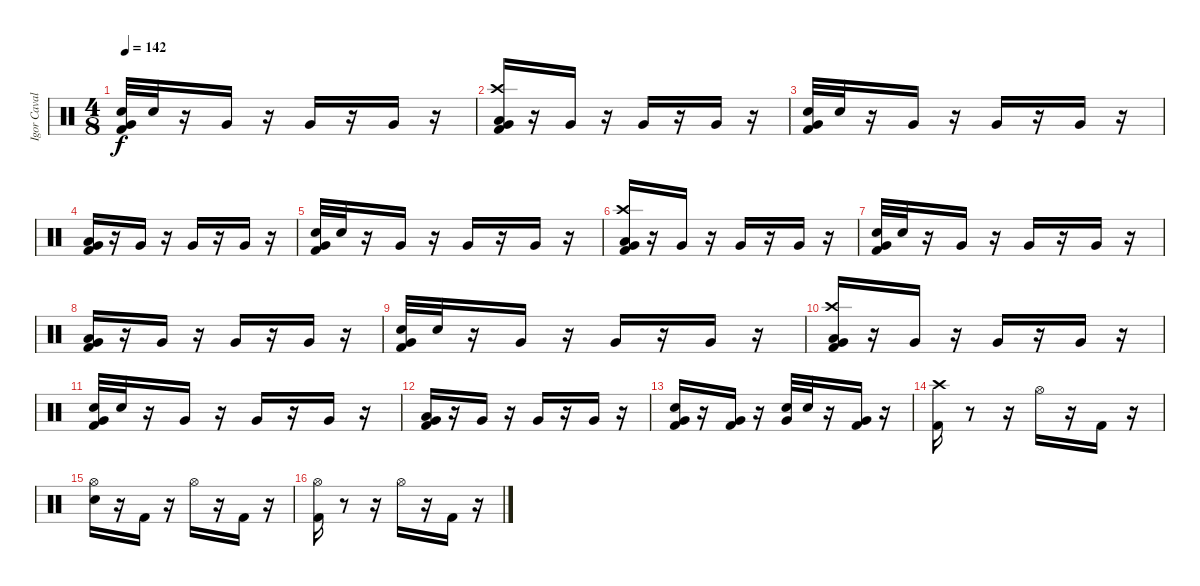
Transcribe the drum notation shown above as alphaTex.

\track ("Igor Cavalera" "Igor Caval") {instrument percussion}
\staff {score}
\articulation defaults
\ts (4 8)
\tempo 142
\clef neutral
\ks c
("Electric Snare (hit)" "Kick (hit) 2" "Very Low Tom (hit)").32{dy f} "Electric Snare (hit)".32 r.16 "Very Low Tom (hit)".16 r.16 "Very Low Tom (hit)".16 r.16 "Very Low Tom (hit)".16 r.16 |
("Very Low Tom (hit)" "Kick (hit) 2" "Crash high (hit)" "Low Floor Tom (hit)").16 r.16 "Very Low Tom (hit)".16 r.16 "Very Low Tom (hit)".16 r.16 "Very Low Tom (hit)".16 r.16 |
("Electric Snare (hit)" "Kick (hit) 2" "Very Low Tom (hit)").32 "Electric Snare (hit)".32 r.16 "Very Low Tom (hit)".16 r.16 "Very Low Tom (hit)".16 r.16 "Very Low Tom (hit)".16 r.16 |
("Low Floor Tom (hit)" "Kick (hit) 2" "Very Low Tom (hit)").16 r.16 "Very Low Tom (hit)".16 r.16 "Very Low Tom (hit)".16 r.16 "Very Low Tom (hit)".16 r.16 |
("Electric Snare (hit)" "Kick (hit) 2" "Very Low Tom (hit)").32 "Electric Snare (hit)".32 r.16 "Very Low Tom (hit)".16 r.16 "Very Low Tom (hit)".16 r.16 "Very Low Tom (hit)".16 r.16 |
("Very Low Tom (hit)" "Kick (hit) 2" "Crash high (hit)" "Low Floor Tom (hit)").16 r.16 "Very Low Tom (hit)".16 r.16 "Very Low Tom (hit)".16 r.16 "Very Low Tom (hit)".16 r.16 |
("Electric Snare (hit)" "Kick (hit) 2" "Very Low Tom (hit)").32 "Electric Snare (hit)".32 r.16 "Very Low Tom (hit)".16 r.16 "Very Low Tom (hit)".16 r.16 "Very Low Tom (hit)".16 r.16 |
("Low Floor Tom (hit)" "Kick (hit) 2" "Very Low Tom (hit)").16 r.16 "Very Low Tom (hit)".16 r.16 "Very Low Tom (hit)".16 r.16 "Very Low Tom (hit)".16 r.16 |
("Electric Snare (hit)" "Kick (hit) 2" "Very Low Tom (hit)").32 "Electric Snare (hit)".32 r.16 "Very Low Tom (hit)".16 r.16 "Very Low Tom (hit)".16 r.16 "Very Low Tom (hit)".16 r.16 |
("Very Low Tom (hit)" "Kick (hit) 2" "Crash high (hit)" "Low Floor Tom (hit)").16 r.16 "Very Low Tom (hit)".16 r.16 "Very Low Tom (hit)".16 r.16 "Very Low Tom (hit)".16 r.16 |
("Electric Snare (hit)" "Kick (hit) 2" "Very Low Tom (hit)").32 "Electric Snare (hit)".32 r.16 "Very Low Tom (hit)".16 r.16 "Very Low Tom (hit)".16 r.16 "Very Low Tom (hit)".16 r.16 |
("Low Floor Tom (hit)" "Kick (hit) 2" "Very Low Tom (hit)").16 r.16 "Very Low Tom (hit)".16 r.16 "Very Low Tom (hit)".16 r.16 "Very Low Tom (hit)".16 r.16 |
("Electric Snare (hit)" "Kick (hit) 2" "Very Low Tom (hit)").16 r.16 ("Kick (hit) 2" "Very Low Tom (hit)").16 r.16 ("Very Low Tom (hit)" "Electric Snare (hit)").32 "Electric Snare (hit)".32 r.16 ("Kick (hit) 2" "Very Low Tom (hit)").16 r.16 |
("Kick (hit) 2" "Crash high (hit)").16 r.8 r.16 "Hi-Hat (open)".16 r.16 "Kick (hit) 2".16 r.16 |
("Electric Snare (hit)" "Hi-Hat (open)").16 r.16 "Kick (hit) 2".16 r.16 "Hi-Hat (open)".16 r.16 "Kick (hit) 2".16 r.16 |
("Kick (hit) 2" "Hi-Hat (open)").16 r.8 r.16 "Hi-Hat (open)".16 r.16 "Kick (hit) 2".16 r.16
